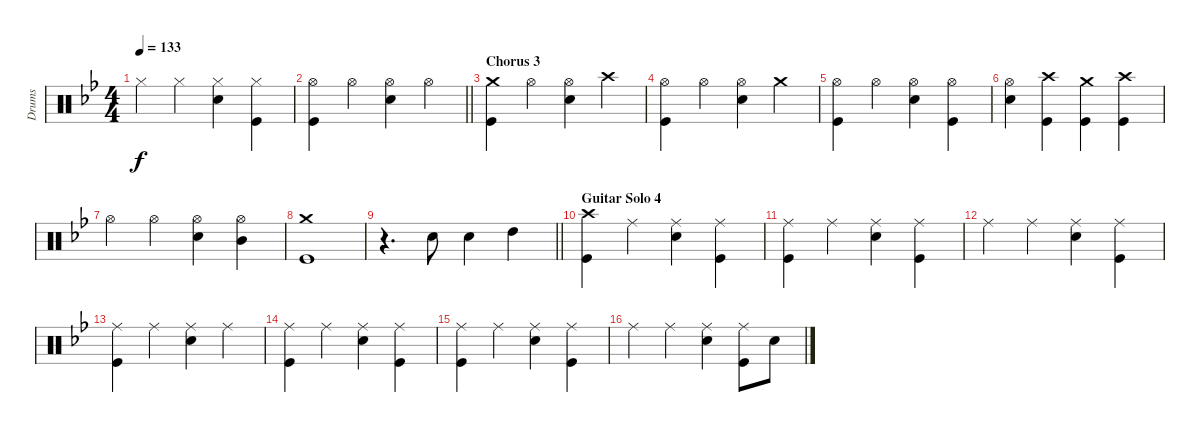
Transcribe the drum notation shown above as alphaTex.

\track ("Drums" "Drums") {instrument percussion}
\staff {score}
\articulation defaults
\ts (4 4)
\tempo 133
\clef neutral
\ks bb "Hi-Hat (closed)".4{dy f} "Hi-Hat (closed)".4
("Hi-Hat (closed)" "Snare (hit) 2").4 ("Hi-Hat (closed)" "Kick (hit)").4 |
\barLineRight lightlight
("Hi-Hat (open)" "Kick (hit)").4 "Hi-Hat (open)".4 ("Hi-Hat (open)" "Snare (hit) 2").4 "Hi-Hat (open)".4 |
\section ("" "Chorus 3")
("Crash medium (hit)" "Kick (hit)").4 "Hi-Hat (open)".4 ("Hi-Hat (open)" "Snare (hit) 2").4 "Crash high (hit)".4 |
("Hi-Hat (open)" "Kick (hit)").4 "Hi-Hat (open)".4 ("Hi-Hat (open)" "Snare (hit) 2").4 "Crash medium (hit)".4 |
("Hi-Hat (open)" "Kick (hit)").4 "Hi-Hat (open)".4 ("Hi-Hat (open)" "Snare (hit) 2").4 ("Hi-Hat (open)" "Kick (hit)").4 |
("Hi-Hat (open)" "Snare (hit) 2").4 ("Crash high (hit)" "Kick (hit)").4 ("Crash medium (hit)" "Kick (hit)").4 ("Crash high (hit)" "Kick (hit)").4 |
"Hi-Hat (open)".4 "Hi-Hat (open)".4 ("Hi-Hat (open)" "Snare (hit) 2").4 ("Hi-Hat (open)" "Mid Tom (hit)").4 |
("Crash medium (hit)" "Kick (hit)").1 |
\barLineRight lightlight
r.4{d} "Snare (hit) 2".8 "Snare (hit) 2".4 "High Tom (hit)".4 |
\section ("" "Guitar Solo 4")
("Crash high (hit)" "Kick (hit)").4 "Ride (middle)".4 ("Ride (middle)" "Snare (hit) 2").4 ("Ride (middle)" "Kick (hit)").4 |
("Ride (middle)" "Kick (hit)").4 "Ride (middle)".4 ("Ride (middle)" "Snare (hit) 2").4 ("Ride (middle)" "Kick (hit)").4 |
"Ride (middle)".4 "Ride (middle)".4 ("Ride (middle)" "Snare (hit) 2").4 ("Ride (middle)" "Kick (hit)").4 |
("Ride (middle)" "Kick (hit)").4 "Ride (middle)".4 ("Ride (middle)" "Snare (hit) 2").4 "Ride (middle)".4 |
("Ride (middle)" "Kick (hit)").4 "Ride (middle)".4 ("Ride (middle)" "Snare (hit) 2").4 ("Ride (middle)" "Kick (hit)").4 |
("Ride (middle)" "Kick (hit)").4 "Ride (middle)".4 ("Ride (middle)" "Snare (hit) 2").4 ("Ride (middle)" "Kick (hit)").4 |
"Ride (middle)".4 "Ride (middle)".4 ("Ride (middle)" "Snare (hit) 2").4 ("Ride (middle)" "Kick (hit)").8 "Snare (hit) 2".8
